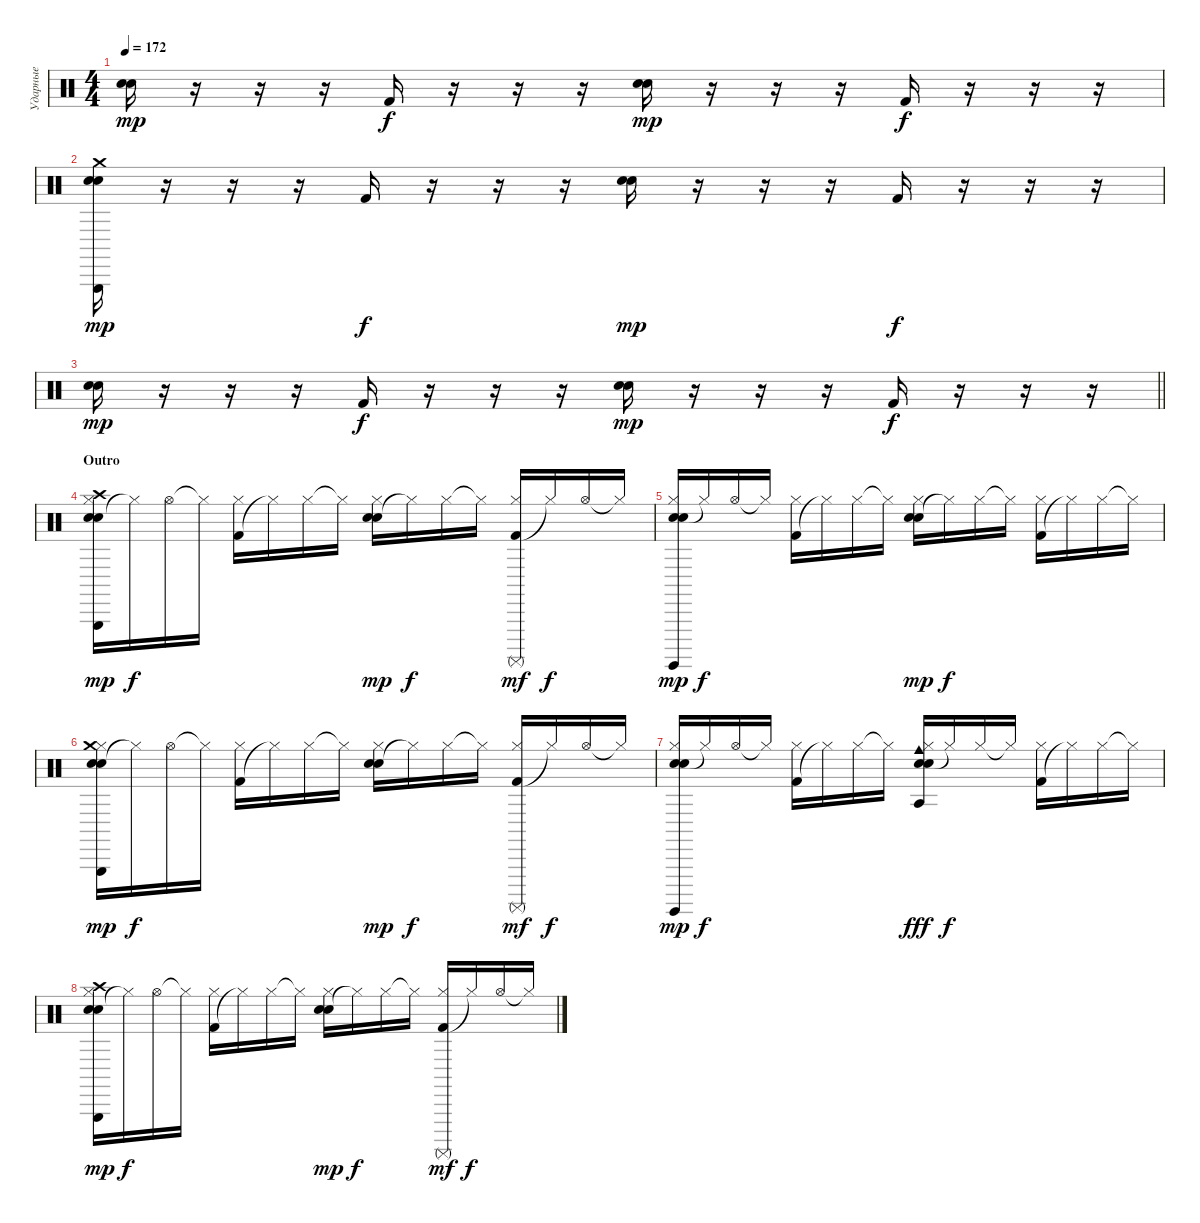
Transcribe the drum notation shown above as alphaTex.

\track ("Ударные" "Ударные") {instrument percussion}
\staff {score}
\articulation defaults
\ts (4 4)
\tempo 172
\clef neutral
\ks c
("Snare (hit) 2" "Electric Snare (hit)").16{dy mp} r.16 r.16 r.16 "Kick (hit) 2".16{dy f} r.16 r.16 r.16 ("Snare (hit) 2" "Electric Snare (hit)").16{dy mp} r.16 r.16 r.16 "Kick (hit) 2".16{dy f} r.16 r.16 r.16 |
("Snare (hit) 2" "Electric Snare (hit)" "Triangle (hit)" "Crash medium (hit)").16{dy mp} r.16 r.16 r.16 "Kick (hit) 2".16{dy f} r.16 r.16 r.16 ("Snare (hit) 2" "Electric Snare (hit)").16{dy mp} r.16 r.16 r.16 "Kick (hit) 2".16{dy f} r.16 r.16 r.16 |
\barLineRight lightlight
("Snare (hit) 2" "Electric Snare (hit)").16{dy mp} r.16 r.16 r.16 "Kick (hit) 2".16{dy f} r.16 r.16 r.16 ("Snare (hit) 2" "Electric Snare (hit)").16{dy mp} r.16 r.16 r.16 "Kick (hit) 2".16{dy f} r.16 r.16 r.16 |
\section ("" "Outro")
("Snare (hit) 2" "Electric Snare (hit)" "Hi-Hat (closed)" "Triangle (hit)" "Crash high (hit)").16{dy mp} "Hi-Hat (closed)"{t}.16{dy f} "Hi-Hat (open)".16 "Hi-Hat (closed)"{t}.16 ("Kick (hit) 2" "Hi-Hat (closed)").16 "Hi-Hat (closed)"{t}.16 "Hi-Hat (closed)".16 "Hi-Hat (closed)"{t}.16 ("Snare (hit) 2" "Electric Snare (hit)" "Hi-Hat (closed)").16{dy mp} "Hi-Hat (closed)"{t}.16{dy f} "Hi-Hat (closed)".16 "Hi-Hat (closed)"{t}.16 ("Kick (hit) 2" "Hi-Hat (closed)" "Surdo (mute)").16{dy mf} "Hi-Hat (closed)"{t}.16{dy f} "Hi-Hat (open)".16 "Hi-Hat (closed)"{t}.16 |
("Snare (hit) 2" "Electric Snare (hit)" "Hi-Hat (closed)" "Surdo (hit)").16{dy mp} "Hi-Hat (closed)"{t}.16{dy f} "Hi-Hat (open)".16 "Hi-Hat (closed)"{t}.16 ("Kick (hit) 2" "Hi-Hat (closed)").16 "Hi-Hat (closed)"{t}.16 "Hi-Hat (closed)".16 "Hi-Hat (closed)"{t}.16 ("Snare (hit) 2" "Electric Snare (hit)" "Hi-Hat (closed)").16{dy mp} "Hi-Hat (closed)"{t}.16{dy f} "Hi-Hat (closed)".16 "Hi-Hat (closed)"{t}.16 ("Kick (hit) 2" "Hi-Hat (closed)").16 "Hi-Hat (closed)"{t}.16 "Hi-Hat (closed)".16 "Hi-Hat (closed)"{t}.16 |
("Snare (hit) 2" "Electric Snare (hit)" "Hi-Hat (closed)" "Triangle (hit)" "Crash medium (hit)").16{dy mp} "Hi-Hat (closed)"{t}.16{dy f} "Hi-Hat (open)".16 "Hi-Hat (closed)"{t}.16 ("Kick (hit) 2" "Hi-Hat (closed)").16 "Hi-Hat (closed)"{t}.16 "Hi-Hat (closed)".16 "Hi-Hat (closed)"{t}.16 ("Snare (hit) 2" "Electric Snare (hit)" "Hi-Hat (closed)").16{dy mp} "Hi-Hat (closed)"{t}.16{dy f} "Hi-Hat (closed)".16 "Hi-Hat (closed)"{t}.16 ("Kick (hit) 2" "Hi-Hat (closed)" "Surdo (mute)").16{dy mf} "Hi-Hat (closed)"{t}.16{dy f} "Hi-Hat (open)".16 "Hi-Hat (closed)"{t}.16 |
("Snare (hit) 2" "Electric Snare (hit)" "Hi-Hat (closed)" "Surdo (hit)").16{dy mp} "Hi-Hat (closed)"{t}.16{dy f} "Hi-Hat (open)".16 "Hi-Hat (closed)"{t}.16 ("Kick (hit) 2" "Hi-Hat (closed)").16 "Hi-Hat (closed)"{t}.16 "Hi-Hat (closed)".16 "Hi-Hat (closed)"{t}.16 ("Snare (hit) 2" "Electric Snare (hit)" "Hi-Hat (closed)" "Cowbell medium (hit)" "Agogo tow (hit)").16{dy fff} "Hi-Hat (closed)"{t}.16{dy f} "Hi-Hat (closed)".16 "Hi-Hat (closed)"{t}.16 ("Kick (hit) 2" "Hi-Hat (closed)").16 "Hi-Hat (closed)"{t}.16 "Hi-Hat (closed)".16 "Hi-Hat (closed)"{t}.16 |
("Snare (hit) 2" "Electric Snare (hit)" "Hi-Hat (closed)" "Triangle (hit)" "Crash high (hit)").16{dy mp} "Hi-Hat (closed)"{t}.16{dy f} "Hi-Hat (open)".16 "Hi-Hat (closed)"{t}.16 ("Kick (hit) 2" "Hi-Hat (closed)").16 "Hi-Hat (closed)"{t}.16 "Hi-Hat (closed)".16 "Hi-Hat (closed)"{t}.16 ("Snare (hit) 2" "Electric Snare (hit)" "Hi-Hat (closed)").16{dy mp} "Hi-Hat (closed)"{t}.16{dy f} "Hi-Hat (closed)".16 "Hi-Hat (closed)"{t}.16 ("Kick (hit) 2" "Hi-Hat (closed)" "Surdo (mute)").16{dy mf} "Hi-Hat (closed)"{t}.16{dy f} "Hi-Hat (open)".16 "Hi-Hat (closed)"{t}.16
